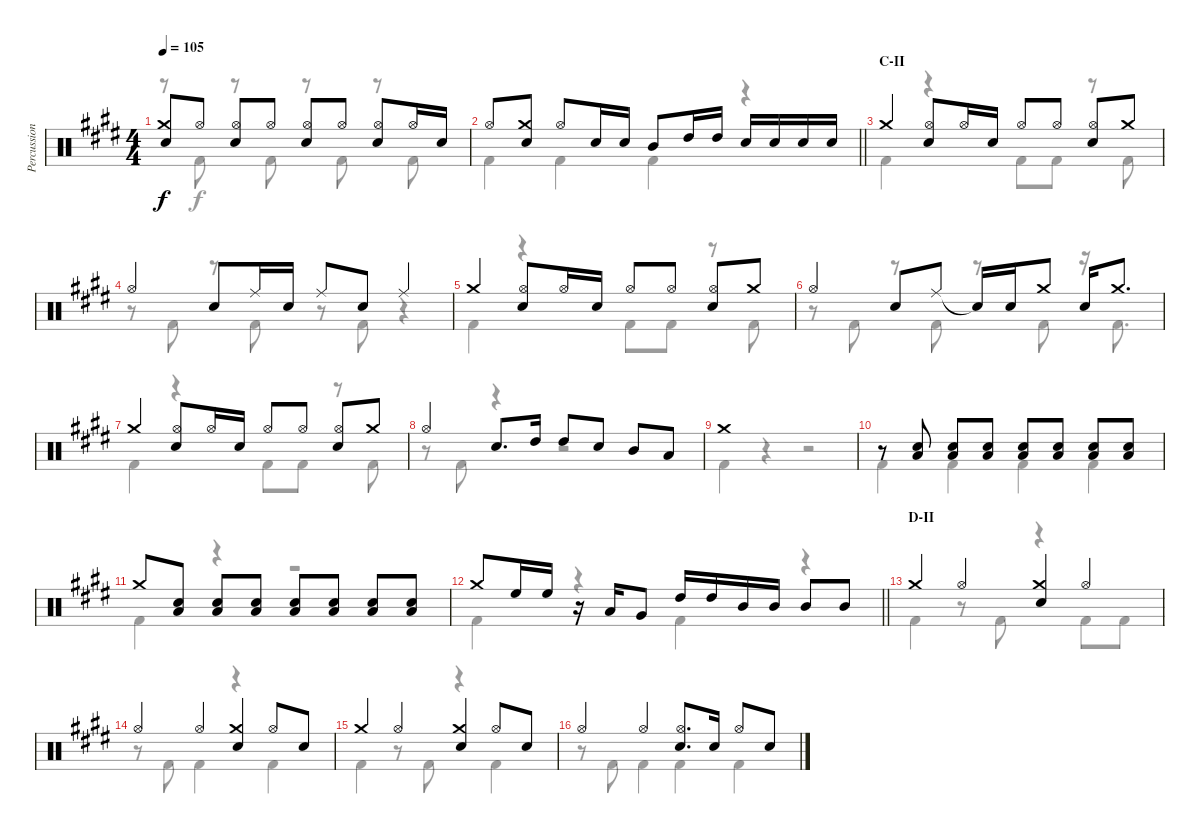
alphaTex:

\track ("Percussion" "Percussion") {instrument percussion}
\staff {score}
\articulation defaults
\voice
\ts (4 4)
\tempo 105
\clef neutral
\ks e
("Crash medium (hit)" "Snare (hit) 2").8{dy f} "Hi-Hat (open)".8 ("Hi-Hat (open)" "Snare (hit) 2").8 "Hi-Hat (open)".8 ("Hi-Hat (open)" "Snare (hit) 2").8 "Hi-Hat (open)".8 ("Hi-Hat (open)" "Snare (hit) 2").8 "Hi-Hat (open)".16 "Snare (hit) 2".16 |
\barLineRight lightlight "Hi-Hat (open)".8
("Crash medium (hit)" "Snare (hit) 2").8 "Hi-Hat (open)".8 "Snare (hit) 2".16 "Snare (hit) 2".16 "Mid Tom (hit)".8 "High Tom (hit)".16 "High Tom (hit)".16 "Snare (hit) 2".16 "Snare (hit) 2".16 "Snare (hit) 2".16 "Snare (hit) 2".16 |
\section ("" "C-II")
"Crash medium (hit)".4 ("Hi-Hat (open)" "Snare (hit) 2").8 "Hi-Hat (open)".16 "Snare (hit) 2".16 "Hi-Hat (open)".8 "Hi-Hat (open)".8 ("Hi-Hat (open)" "Snare (hit) 2").8 "Crash medium (hit)".8 |
"Hi-Hat (open)".4 "Snare (hit) 2".8 "Ride (middle)".16 "Snare (hit) 2".16 "Ride (middle)".8 "Snare (hit) 2".8 "Ride (middle)".4 |
"Crash medium (hit)".4 ("Hi-Hat (open)" "Snare (hit) 2").8 "Hi-Hat (open)".16 "Snare (hit) 2".16 "Hi-Hat (open)".8 "Hi-Hat (open)".8 ("Hi-Hat (open)" "Snare (hit) 2").8 "Crash medium (hit)".8 |
"Hi-Hat (open)".4 "Snare (hit) 2".8 "Ride (middle)".8 "Snare (hit)"{t}.16 "Snare (hit) 2".16 "Crash medium (hit)".8 "Snare (hit) 2".16 "Crash medium (hit)".8{d} |
"Crash medium (hit)".4 ("Hi-Hat (open)" "Snare (hit) 2").8 "Hi-Hat (open)".16 "Snare (hit) 2".16 "Hi-Hat (open)".8 "Hi-Hat (open)".8 ("Hi-Hat (open)" "Snare (hit) 2").8 "Crash medium (hit)".8 |
"Hi-Hat (open)".4 "Snare (hit) 2".8{d} "High Tom (hit)".16 "High Tom (hit)".8 "Snare (hit) 2".8 "Mid Tom (hit)".8 "Low Tom (hit)".8 |
"Crash medium (hit)".1 |
r.8 ("Snare (hit) 2" "Low Tom (hit)").8 ("Snare (hit) 2" "Low Tom (hit)").8 ("Snare (hit) 2" "Low Tom (hit)").8 ("Snare (hit) 2" "Low Tom (hit)").8 ("Snare (hit) 2" "Low Tom (hit)").8 ("Snare (hit) 2" "Low Tom (hit)").8 ("Snare (hit) 2" "Low Tom (hit)").8 |
"Crash medium (hit)".8 ("Snare (hit) 2" "Low Tom (hit)").8 ("Snare (hit) 2" "Low Tom (hit)").8 ("Snare (hit) 2" "Low Tom (hit)").8 ("Snare (hit) 2" "Low Tom (hit)").8 ("Snare (hit) 2" "Low Tom (hit)").8 ("Snare (hit) 2" "Low Tom (hit)").8 ("Snare (hit) 2" "Low Tom (hit)").8 |
\barLineRight lightlight "Crash medium (hit)".8 "High Floor Tom (hit)".16 "High Floor Tom (hit)".16
r.16 "Low Tom (hit)".16 "Very Low Tom (hit)".8 "High Tom (hit)".16 "High Tom (hit)".16 "Mid Tom (hit)".16 "Mid Tom (hit)".16 "Mid Tom (hit)".8 "Mid Tom (hit)".8 |
\section ("" "D-II")
"Crash medium (hit)".4 "Hi-Hat (open)".4 ("Crash medium (hit)" "Snare (hit) 2").4 "Hi-Hat (open)".4 |
"Hi-Hat (open)".4 "Hi-Hat (open)".4 ("Crash medium (hit)" "Snare (hit) 2").4 "Hi-Hat (open)".8 "Snare (hit) 2".8 |
"Crash medium (hit)".4 "Hi-Hat (open)".4 ("Crash medium (hit)" "Snare (hit) 2").4 "Hi-Hat (open)".8 "Snare (hit) 2".8 |
"Hi-Hat (open)".4 "Hi-Hat (open)".4 ("Hi-Hat (open)" "Snare (hit) 2").8{d} "Snare (hit) 2".16 "Hi-Hat (open)".8 "Snare (hit) 2".8
\voice
\clef neutral
\ottava regular
\simile none
\ks e
r.8{dy f} "Kick (hit) 2".8 r.8 "Kick (hit) 2".8 r.8 "Kick (hit) 2".8 r.8 "Kick (hit) 2".8 |
\barLineRight lightlight "Kick (hit) 2".4 "Kick (hit) 2".4 "Kick (hit) 2".4
r.4 |
"Kick (hit) 2".4 r.4 "Kick (hit) 2".8 "Kick (hit) 2".8 r.8 "Kick (hit) 2".8 |
r.8 "Kick (hit) 2".8 r.8 "Kick (hit) 2".8 r.8 "Kick (hit) 2".8 r.4 |
"Kick (hit) 2".4 r.4 "Kick (hit) 2".8 "Kick (hit) 2".8 r.8 "Kick (hit) 2".8 |
r.8 "Kick (hit) 2".8 r.8 "Kick (hit) 2".8 r.8 "Kick (hit) 2".8 r.16 "Kick (hit) 2".8{d} |
"Kick (hit) 2".4 r.4 "Kick (hit) 2".8 "Kick (hit) 2".8 r.8 "Kick (hit) 2".8 |
r.8 "Kick (hit) 2".8 r.4 r.2 |
"Kick (hit) 2".4 r.4 r.2 |
"Kick (hit) 2".4 "Kick (hit) 2".4 "Kick (hit) 2".4 "Kick (hit) 2".4 |
"Kick (hit) 2".4 r.4 r.2 |
\barLineRight lightlight "Kick (hit) 2".4
r.4 "Kick (hit) 2".4 r.4 |
"Kick (hit) 2".4 r.8 "Kick (hit) 2".8 r.4 "Kick (hit) 2".8 "Kick (hit) 2".8 |
r.8 "Kick (hit) 2".8 "Kick (hit) 2".4 r.4 "Kick (hit) 2".4 |
"Kick (hit) 2".4 r.8 "Kick (hit) 2".8 r.4 "Kick (hit) 2".4 |
r.8 "Kick (hit) 2".8 "Kick (hit) 2".4 "Kick (hit) 2".4 "Kick (hit) 2".4
